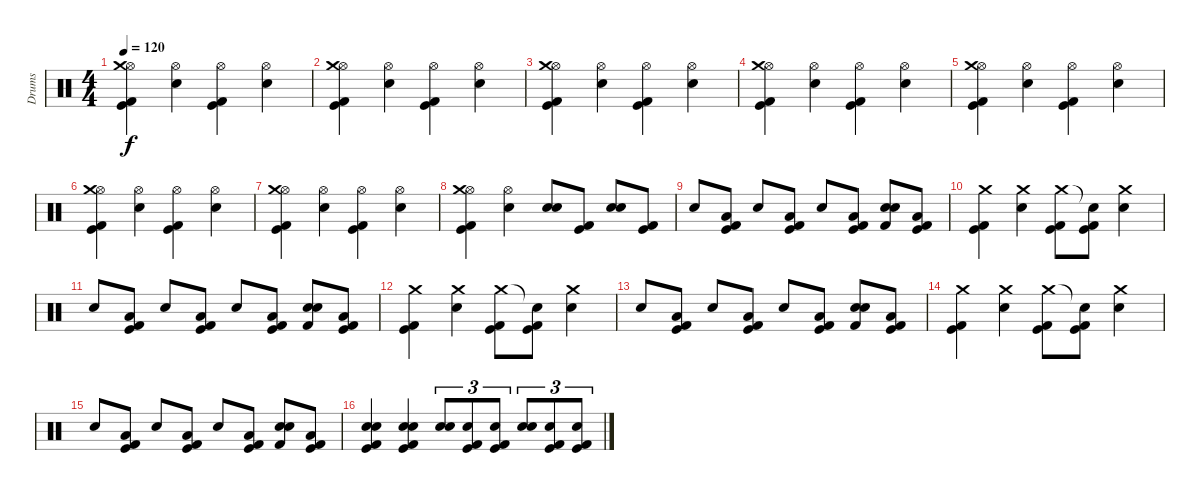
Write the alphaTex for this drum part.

\track ("Drums" "Drums") {instrument percussion}
\staff {score}
\articulation defaults
\ts (4 4)
\tempo 120
\clef neutral
\ks c
("Hi-Hat (open)" "Crash medium (hit)" "Kick (hit)" "Kick (hit) 2").4{dy f} ("Hi-Hat (open)" "Electric Snare (hit)").4 ("Hi-Hat (open)" "Kick (hit)" "Kick (hit) 2").4 ("Hi-Hat (open)" "Electric Snare (hit)").4 |
("Hi-Hat (open)" "Crash medium (hit)" "Kick (hit)" "Kick (hit) 2").4 ("Hi-Hat (open)" "Electric Snare (hit)").4 ("Hi-Hat (open)" "Kick (hit)" "Kick (hit) 2").4 ("Hi-Hat (open)" "Electric Snare (hit)").4 |
("Hi-Hat (open)" "Crash medium (hit)" "Kick (hit)" "Kick (hit) 2").4 ("Hi-Hat (open)" "Electric Snare (hit)").4 ("Hi-Hat (open)" "Kick (hit)" "Kick (hit) 2").4 ("Hi-Hat (open)" "Electric Snare (hit)").4 |
("Hi-Hat (open)" "Crash medium (hit)" "Kick (hit)" "Kick (hit) 2").4 ("Hi-Hat (open)" "Electric Snare (hit)").4 ("Hi-Hat (open)" "Kick (hit)" "Kick (hit) 2").4 ("Hi-Hat (open)" "Electric Snare (hit)").4 |
("Hi-Hat (open)" "Crash medium (hit)" "Kick (hit)" "Kick (hit) 2").4 ("Hi-Hat (open)" "Electric Snare (hit)").4 ("Hi-Hat (open)" "Kick (hit)" "Kick (hit) 2").4 ("Hi-Hat (open)" "Electric Snare (hit)").4 |
("Hi-Hat (open)" "Crash medium (hit)" "Kick (hit)" "Kick (hit) 2").4 ("Hi-Hat (open)" "Electric Snare (hit)").4 ("Hi-Hat (open)" "Kick (hit)" "Kick (hit) 2").4 ("Hi-Hat (open)" "Electric Snare (hit)").4 |
("Hi-Hat (open)" "Crash medium (hit)" "Kick (hit)" "Kick (hit) 2").4 ("Hi-Hat (open)" "Electric Snare (hit)").4 ("Hi-Hat (open)" "Kick (hit)" "Kick (hit) 2").4 ("Hi-Hat (open)" "Electric Snare (hit)").4 |
("Hi-Hat (open)" "Crash medium (hit)" "Kick (hit)" "Kick (hit) 2").4 ("Hi-Hat (open)" "Electric Snare (hit)").4 ("Electric Snare (hit)" "Snare (hit) 2").8{bd 120} ("Kick (hit)" "Kick (hit) 2").8 ("Electric Snare (hit)" "Snare (hit) 2").8{bd 120} ("Kick (hit)" "Kick (hit) 2").8 |
"Snare (hit) 2".8 ("Low Floor Tom (hit)" "Kick (hit)" "Kick (hit) 2").8 "Snare (hit) 2".8 ("Low Floor Tom (hit)" "Kick (hit)" "Kick (hit) 2").8 "Snare (hit) 2".8 ("Low Floor Tom (hit)" "Kick (hit)" "Kick (hit) 2").8 ("Electric Snare (hit)" "Snare (hit) 2" "Kick (hit) 2").8 ("Low Floor Tom (hit)" "Kick (hit)" "Kick (hit) 2").8 |
("Crash medium (hit)" "Kick (hit)" "Kick (hit) 2").4 ("Crash medium (hit)" "Snare (hit) 2").4 ("Crash medium (hit)" "Kick (hit)" "Kick (hit) 2").8 ("Snare (hit)"{t} "Kick (hit)" "Kick (hit) 2").8 ("Crash medium (hit)" "Snare (hit) 2").4 |
"Snare (hit) 2".8 ("Low Floor Tom (hit)" "Kick (hit)" "Kick (hit) 2").8 "Snare (hit) 2".8 ("Low Floor Tom (hit)" "Kick (hit)" "Kick (hit) 2").8 "Snare (hit) 2".8 ("Low Floor Tom (hit)" "Kick (hit)" "Kick (hit) 2").8 ("Electric Snare (hit)" "Snare (hit) 2" "Kick (hit) 2").8 ("Low Floor Tom (hit)" "Kick (hit)" "Kick (hit) 2").8 |
("Crash medium (hit)" "Kick (hit)" "Kick (hit) 2").4 ("Crash medium (hit)" "Snare (hit) 2").4 ("Crash medium (hit)" "Kick (hit)" "Kick (hit) 2").8 ("Snare (hit)"{t} "Kick (hit)" "Kick (hit) 2").8 ("Crash medium (hit)" "Snare (hit) 2").4 |
"Snare (hit) 2".8 ("Low Floor Tom (hit)" "Kick (hit)" "Kick (hit) 2").8 "Snare (hit) 2".8 ("Low Floor Tom (hit)" "Kick (hit)" "Kick (hit) 2").8 "Snare (hit) 2".8 ("Low Floor Tom (hit)" "Kick (hit)" "Kick (hit) 2").8 ("Electric Snare (hit)" "Snare (hit) 2" "Kick (hit) 2").8 ("Low Floor Tom (hit)" "Kick (hit)" "Kick (hit) 2").8 |
("Crash medium (hit)" "Kick (hit)" "Kick (hit) 2").4 ("Crash medium (hit)" "Snare (hit) 2").4 ("Crash medium (hit)" "Kick (hit)" "Kick (hit) 2").8 ("Snare (hit)"{t} "Kick (hit)" "Kick (hit) 2").8 ("Crash medium (hit)" "Snare (hit) 2").4 |
"Snare (hit) 2".8 ("Low Floor Tom (hit)" "Kick (hit)" "Kick (hit) 2").8 "Snare (hit) 2".8 ("Low Floor Tom (hit)" "Kick (hit)" "Kick (hit) 2").8 "Snare (hit) 2".8 ("Low Floor Tom (hit)" "Kick (hit)" "Kick (hit) 2").8 ("Electric Snare (hit)" "Snare (hit) 2" "Kick (hit) 2").8 ("Low Floor Tom (hit)" "Kick (hit)" "Kick (hit) 2").8 |
("Electric Snare (hit)" "Snare (hit) 2" "Kick (hit)" "Kick (hit) 2").4 ("Electric Snare (hit)" "Snare (hit) 2" "Kick (hit)" "Kick (hit) 2").4 ("Electric Snare (hit)" "Snare (hit) 2").8{tu (3 2)} ("Snare (hit) 2" "Kick (hit)" "Kick (hit) 2").8{tu (3 2)} ("Electric Snare (hit)" "Kick (hit)" "Kick (hit) 2").8{tu (3 2)} ("Electric Snare (hit)" "Snare (hit) 2").8{tu (3 2)} ("Snare (hit) 2" "Kick (hit)" "Kick (hit) 2").8{tu (3 2)} ("Electric Snare (hit)" "Kick (hit)" "Kick (hit) 2").8{tu (3 2)}
